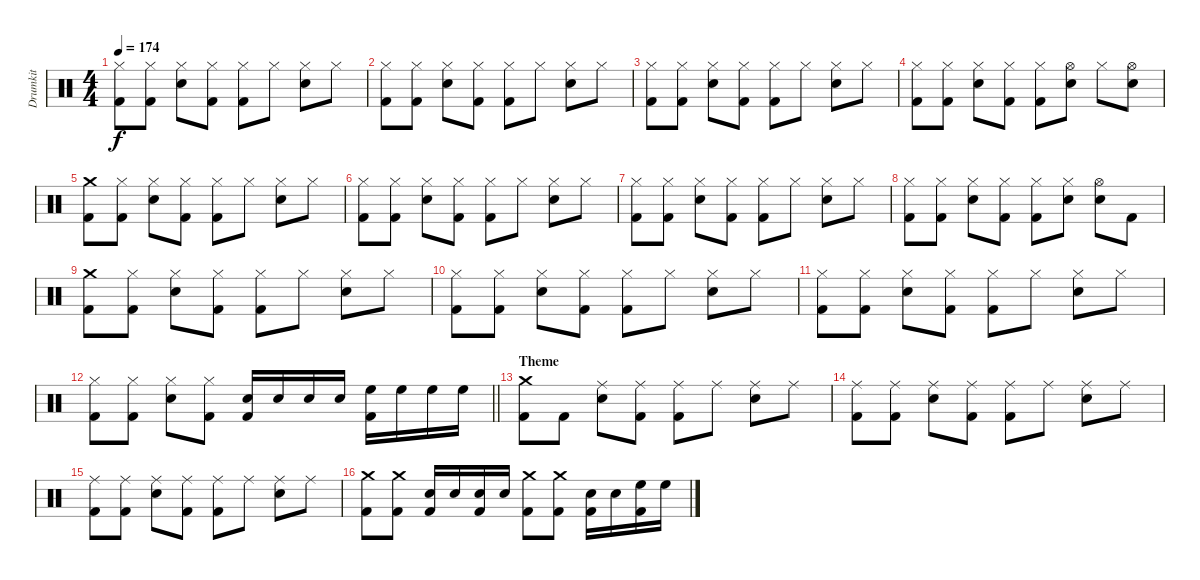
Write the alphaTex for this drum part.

\track ("Drumkit" "Drumkit") {instrument percussion}
\staff {score}
\articulation defaults
\ts (4 4)
\tempo 174
\clef neutral
\ks c
("Hi-Hat (closed)" "Kick (hit) 2").8{dy f} ("Hi-Hat (closed)" "Kick (hit) 2").8 ("Hi-Hat (closed)" "Snare (hit) 2").8 ("Hi-Hat (closed)" "Kick (hit) 2").8 ("Hi-Hat (closed)" "Kick (hit) 2").8 "Hi-Hat (closed)".8 ("Hi-Hat (closed)" "Snare (hit) 2").8 "Hi-Hat (closed)".8 |
("Hi-Hat (closed)" "Kick (hit) 2").8 ("Hi-Hat (closed)" "Kick (hit) 2").8 ("Hi-Hat (closed)" "Snare (hit) 2").8 ("Hi-Hat (closed)" "Kick (hit) 2").8 ("Hi-Hat (closed)" "Kick (hit) 2").8 "Hi-Hat (closed)".8 ("Hi-Hat (closed)" "Snare (hit) 2").8 "Hi-Hat (closed)".8 |
("Hi-Hat (closed)" "Kick (hit) 2").8 ("Hi-Hat (closed)" "Kick (hit) 2").8 ("Hi-Hat (closed)" "Snare (hit) 2").8 ("Hi-Hat (closed)" "Kick (hit) 2").8 ("Hi-Hat (closed)" "Kick (hit) 2").8 "Hi-Hat (closed)".8 ("Hi-Hat (closed)" "Snare (hit) 2").8 "Hi-Hat (closed)".8 |
("Hi-Hat (closed)" "Kick (hit) 2").8 ("Hi-Hat (closed)" "Kick (hit) 2").8 ("Hi-Hat (closed)" "Snare (hit) 2").8 ("Hi-Hat (closed)" "Kick (hit) 2").8 ("Hi-Hat (closed)" "Kick (hit) 2").8 ("Hi-Hat (open)" "Snare (hit) 2").8 "Hi-Hat (closed)".8 ("Hi-Hat (open)" "Snare (hit) 2").8 |
("Crash medium (hit)" "Kick (hit) 2").8 ("Hi-Hat (closed)" "Kick (hit) 2").8 ("Hi-Hat (closed)" "Snare (hit) 2").8 ("Hi-Hat (closed)" "Kick (hit) 2").8 ("Hi-Hat (closed)" "Kick (hit) 2").8 "Hi-Hat (closed)".8 ("Hi-Hat (closed)" "Snare (hit) 2").8 "Hi-Hat (closed)".8 |
("Hi-Hat (closed)" "Kick (hit) 2").8 ("Hi-Hat (closed)" "Kick (hit) 2").8 ("Hi-Hat (closed)" "Snare (hit) 2").8 ("Hi-Hat (closed)" "Kick (hit) 2").8 ("Hi-Hat (closed)" "Kick (hit) 2").8 "Hi-Hat (closed)".8 ("Hi-Hat (closed)" "Snare (hit) 2").8 "Hi-Hat (closed)".8 |
("Hi-Hat (closed)" "Kick (hit) 2").8 ("Hi-Hat (closed)" "Kick (hit) 2").8 ("Hi-Hat (closed)" "Snare (hit) 2").8 ("Hi-Hat (closed)" "Kick (hit) 2").8 ("Hi-Hat (closed)" "Kick (hit) 2").8 "Hi-Hat (closed)".8 ("Hi-Hat (closed)" "Snare (hit) 2").8 "Hi-Hat (closed)".8 |
("Hi-Hat (closed)" "Kick (hit) 2").8 ("Hi-Hat (closed)" "Kick (hit) 2").8 ("Hi-Hat (closed)" "Snare (hit) 2").8 ("Hi-Hat (closed)" "Kick (hit) 2").8 ("Hi-Hat (closed)" "Kick (hit) 2").8 ("Hi-Hat (closed)" "Snare (hit) 2").8 ("Hi-Hat (open)" "Snare (hit) 2").8 "Kick (hit) 2".8 |
("Crash medium (hit)" "Kick (hit) 2").8 ("Hi-Hat (closed)" "Kick (hit) 2").8 ("Hi-Hat (closed)" "Snare (hit) 2").8 ("Hi-Hat (closed)" "Kick (hit) 2").8 ("Hi-Hat (closed)" "Kick (hit) 2").8 "Hi-Hat (closed)".8 ("Hi-Hat (closed)" "Snare (hit) 2").8 "Hi-Hat (closed)".8 |
("Hi-Hat (closed)" "Kick (hit) 2").8 ("Hi-Hat (closed)" "Kick (hit) 2").8 ("Hi-Hat (closed)" "Snare (hit) 2").8 ("Hi-Hat (closed)" "Kick (hit) 2").8 ("Hi-Hat (closed)" "Kick (hit) 2").8 "Hi-Hat (closed)".8 ("Hi-Hat (closed)" "Snare (hit) 2").8 "Hi-Hat (closed)".8 |
("Hi-Hat (closed)" "Kick (hit) 2").8 ("Hi-Hat (closed)" "Kick (hit) 2").8 ("Hi-Hat (closed)" "Snare (hit) 2").8 ("Hi-Hat (closed)" "Kick (hit) 2").8 ("Hi-Hat (closed)" "Kick (hit) 2").8 "Hi-Hat (closed)".8 ("Hi-Hat (closed)" "Snare (hit) 2").8 "Hi-Hat (closed)".8 |
\barLineRight lightlight
("Hi-Hat (closed)" "Kick (hit) 2").8 ("Hi-Hat (closed)" "Kick (hit) 2").8 ("Hi-Hat (closed)" "Snare (hit) 2").8 ("Hi-Hat (closed)" "Kick (hit) 2").8 ("Snare (hit) 2" "Kick (hit) 2").16 "Snare (hit) 2".16 "Snare (hit) 2".16 "Snare (hit) 2".16 ("High Floor Tom (hit)" "Kick (hit) 2").16 "High Floor Tom (hit)".16 "High Floor Tom (hit)".16 "High Floor Tom (hit)".16 |
\section ("" "Theme")
("Crash medium (hit)" "Kick (hit) 2").8 "Kick (hit) 2".8 ("Ride (middle)" "Snare (hit) 2").8 ("Ride (middle)" "Kick (hit) 2").8 ("Ride (middle)" "Kick (hit) 2").8 "Ride (middle)".8 ("Ride (middle)" "Snare (hit) 2").8 "Ride (middle)".8 |
("Ride (middle)" "Kick (hit) 2").8 ("Ride (middle)" "Kick (hit) 2").8 ("Ride (middle)" "Snare (hit) 2").8 ("Ride (middle)" "Kick (hit) 2").8 ("Ride (middle)" "Kick (hit) 2").8 "Ride (middle)".8 ("Ride (middle)" "Snare (hit) 2").8 "Ride (middle)".8 |
("Ride (middle)" "Kick (hit) 2").8 ("Ride (middle)" "Kick (hit) 2").8 ("Ride (middle)" "Snare (hit) 2").8 ("Ride (middle)" "Kick (hit) 2").8 ("Ride (middle)" "Kick (hit) 2").8 "Ride (middle)".8 ("Ride (middle)" "Snare (hit) 2").8 "Ride (middle)".8 |
("Crash medium (hit)" "Kick (hit) 2").8 ("Crash medium (hit)" "Kick (hit) 2").8 ("Snare (hit) 2" "Kick (hit) 2").16 "Snare (hit) 2".16 ("Snare (hit) 2" "Kick (hit) 2").16 "Snare (hit) 2".16 ("Crash medium (hit)" "Kick (hit) 2").8 ("Crash medium (hit)" "Kick (hit) 2").8 ("Snare (hit) 2" "Kick (hit) 2").16 "Snare (hit) 2".16 ("High Floor Tom (hit)" "Kick (hit) 2").16 "High Floor Tom (hit)".16
